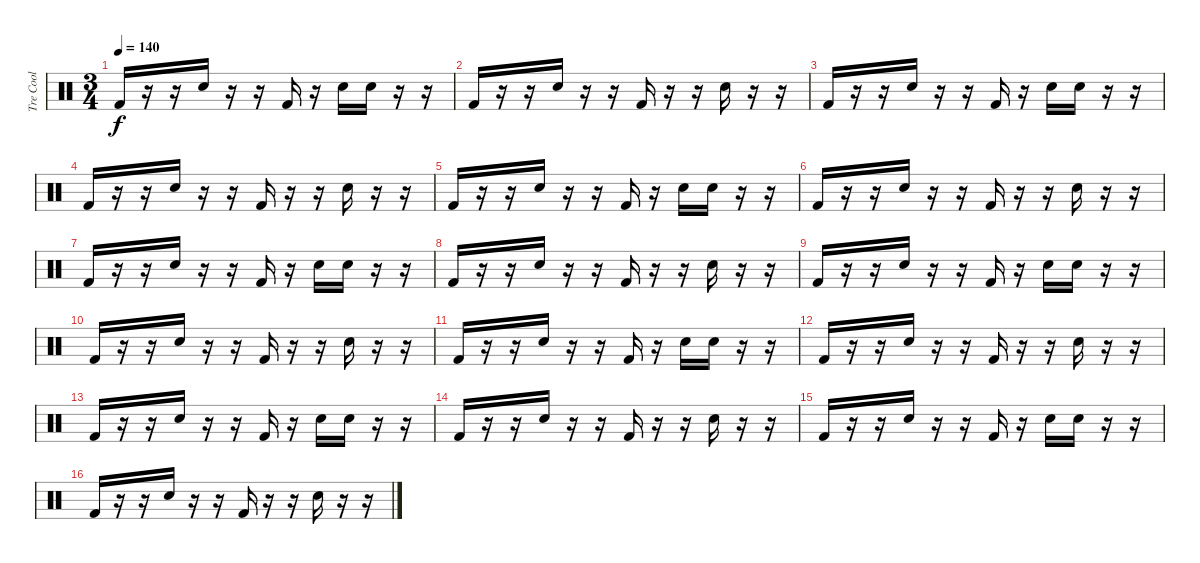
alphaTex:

\track ("Tre Cool" "Tre Cool") {instrument percussion}
\staff {score}
\articulation defaults
\ts (3 4)
\tempo 140
\clef neutral
\ks c "Kick (hit) 2".16{dy f}
r.16 r.16 "Snare (hit) 2".16 r.16 r.16 "Kick (hit) 2".16 r.16 "Snare (hit) 2".16 "Snare (hit) 2".16 r.16 r.16 |
"Kick (hit) 2".16 r.16 r.16 "Snare (hit) 2".16 r.16 r.16 "Kick (hit) 2".16 r.16 r.16 "Snare (hit) 2".16 r.16 r.16 |
"Kick (hit) 2".16 r.16 r.16 "Snare (hit) 2".16 r.16 r.16 "Kick (hit) 2".16 r.16 "Snare (hit) 2".16 "Snare (hit) 2".16 r.16 r.16 |
"Kick (hit) 2".16 r.16 r.16 "Snare (hit) 2".16 r.16 r.16 "Kick (hit) 2".16 r.16 r.16 "Snare (hit) 2".16 r.16 r.16 |
"Kick (hit) 2".16 r.16 r.16 "Snare (hit) 2".16 r.16 r.16 "Kick (hit) 2".16 r.16 "Snare (hit) 2".16 "Snare (hit) 2".16 r.16 r.16 |
"Kick (hit) 2".16 r.16 r.16 "Snare (hit) 2".16 r.16 r.16 "Kick (hit) 2".16 r.16 r.16 "Snare (hit) 2".16 r.16 r.16 |
"Kick (hit) 2".16 r.16 r.16 "Snare (hit) 2".16 r.16 r.16 "Kick (hit) 2".16 r.16 "Snare (hit) 2".16 "Snare (hit) 2".16 r.16 r.16 |
"Kick (hit) 2".16 r.16 r.16 "Snare (hit) 2".16 r.16 r.16 "Kick (hit) 2".16 r.16 r.16 "Snare (hit) 2".16 r.16 r.16 |
"Kick (hit) 2".16 r.16 r.16 "Snare (hit) 2".16 r.16 r.16 "Kick (hit) 2".16 r.16 "Snare (hit) 2".16 "Snare (hit) 2".16 r.16 r.16 |
"Kick (hit) 2".16 r.16 r.16 "Snare (hit) 2".16 r.16 r.16 "Kick (hit) 2".16 r.16 r.16 "Snare (hit) 2".16 r.16 r.16 |
"Kick (hit) 2".16 r.16 r.16 "Snare (hit) 2".16 r.16 r.16 "Kick (hit) 2".16 r.16 "Snare (hit) 2".16 "Snare (hit) 2".16 r.16 r.16 |
"Kick (hit) 2".16 r.16 r.16 "Snare (hit) 2".16 r.16 r.16 "Kick (hit) 2".16 r.16 r.16 "Snare (hit) 2".16 r.16 r.16 |
"Kick (hit) 2".16 r.16 r.16 "Snare (hit) 2".16 r.16 r.16 "Kick (hit) 2".16 r.16 "Snare (hit) 2".16 "Snare (hit) 2".16 r.16 r.16 |
"Kick (hit) 2".16 r.16 r.16 "Snare (hit) 2".16 r.16 r.16 "Kick (hit) 2".16 r.16 r.16 "Snare (hit) 2".16 r.16 r.16 |
"Kick (hit) 2".16 r.16 r.16 "Snare (hit) 2".16 r.16 r.16 "Kick (hit) 2".16 r.16 "Snare (hit) 2".16 "Snare (hit) 2".16 r.16 r.16 |
"Kick (hit) 2".16 r.16 r.16 "Snare (hit) 2".16 r.16 r.16 "Kick (hit) 2".16 r.16 r.16 "Snare (hit) 2".16 r.16 r.16
